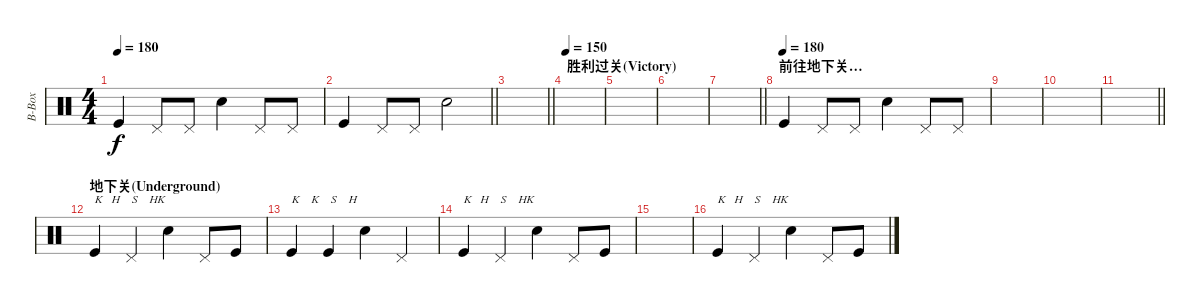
\track ("B-Box" "B-Box") {instrument percussion}
\staff {score}
\articulation defaults
\ts (4 4)
\tempo 180
\clef neutral
\ks c "Kick (hit)".4{dy f} "Pedal Hi-Hat (hit)".8 "Pedal Hi-Hat (hit)".8 "Snare (hit) 2".4 "Pedal Hi-Hat (hit)".8 "Pedal Hi-Hat (hit)".8
|
\barLineRight lightlight "Kick (hit)".4 "Pedal Hi-Hat (hit)".8 "Pedal Hi-Hat (hit)".8 "Snare (hit) 2".2
|
\barLineRight lightlight
|
\section ("" "胜利过关(Victory)")
\tempo 150
|
|
|
\barLineRight lightlight
|
\section ("" "前往地下关…")
\tempo (180)
"Kick (hit)".4 "Pedal Hi-Hat (hit)".8 "Pedal Hi-Hat (hit)".8 "Snare (hit) 2".4 "Pedal Hi-Hat (hit)".8 "Pedal Hi-Hat (hit)".8 |
|
|
\barLineRight lightlight
|
\section ("" "地下关(Underground)")
"Kick (hit)".4{txt "K   H    S    HK"} "Pedal Hi-Hat (hit)".4 "Snare (hit) 2".4 "Pedal Hi-Hat (hit)".8 "Kick (hit)".8 |
"Kick (hit)".4{txt "K    K    S    H"} "Kick (hit)".4 "Snare (hit) 2".4 "Pedal Hi-Hat (hit)".4 |
"Kick (hit)".4{txt "K   H    S    HK"} "Pedal Hi-Hat (hit)".4 "Snare (hit) 2".4 "Pedal Hi-Hat (hit)".8 "Kick (hit)".8 |
|
"Kick (hit)".4{txt "K   H    S    HK"} "Pedal Hi-Hat (hit)".4 "Snare (hit) 2".4 "Pedal Hi-Hat (hit)".8 "Kick (hit)".8
